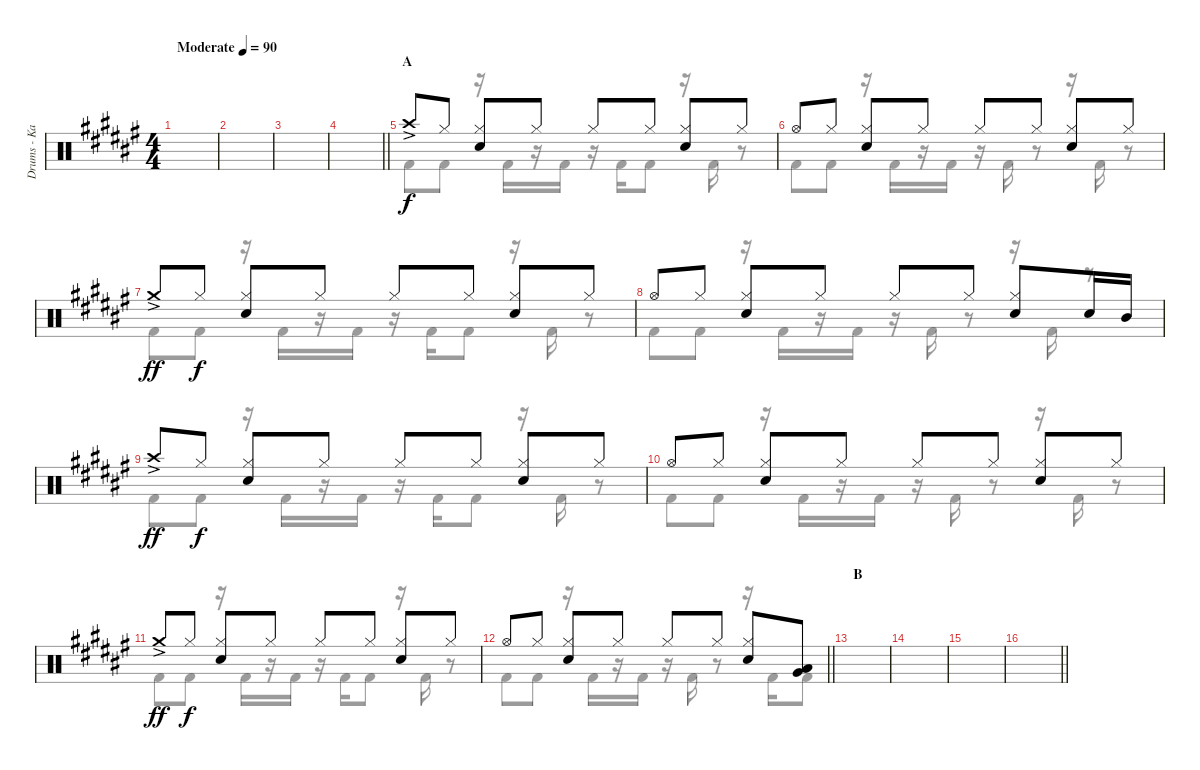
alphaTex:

\track ("Drums - Kai" "Drums - Ka") {instrument percussion}
\staff {score}
\articulation defaults
\voice
\ts (4 4)
\tempo (90 "Moderate")
\clef neutral
\ks f#
|
|
|
\barLineRight lightlight
|
\section ("" "A")
"Crash high (hit)"{ac}.8 "Hi-Hat (closed)".8{dy f} ("Hi-Hat (closed)" "Snare (hit) 2").8 "Hi-Hat (closed)".8 "Hi-Hat (closed)".8 "Hi-Hat (closed)".8 ("Hi-Hat (closed)" "Snare (hit) 2").8 "Hi-Hat (closed)".8 |
"Hi-Hat (open)".8 "Hi-Hat (closed)".8 ("Hi-Hat (closed)" "Snare (hit) 2").8 "Hi-Hat (closed)".8 "Hi-Hat (closed)".8 "Hi-Hat (closed)".8 ("Hi-Hat (closed)" "Snare (hit) 2").8 "Hi-Hat (closed)".8 |
"Crash medium (hit)"{ac}.8{dy ff} "Hi-Hat (closed)".8{dy f} ("Hi-Hat (closed)" "Snare (hit) 2").8 "Hi-Hat (closed)".8 "Hi-Hat (closed)".8 "Hi-Hat (closed)".8 ("Hi-Hat (closed)" "Snare (hit) 2").8 "Hi-Hat (closed)".8 |
"Hi-Hat (open)".8 "Hi-Hat (closed)".8 ("Hi-Hat (closed)" "Snare (hit) 2").8 "Hi-Hat (closed)".8 "Hi-Hat (closed)".8 "Hi-Hat (closed)".8 ("Hi-Hat (closed)" "Snare (hit) 2").8 "Snare (hit) 2".16 "Mid Tom (hit)".16 |
"Crash high (hit)"{ac}.8{dy ff} "Hi-Hat (closed)".8{dy f} ("Hi-Hat (closed)" "Snare (hit) 2").8 "Hi-Hat (closed)".8 "Hi-Hat (closed)".8 "Hi-Hat (closed)".8 ("Hi-Hat (closed)" "Snare (hit) 2").8 "Hi-Hat (closed)".8 |
"Hi-Hat (open)".8 "Hi-Hat (closed)".8 ("Hi-Hat (closed)" "Snare (hit) 2").8 "Hi-Hat (closed)".8 "Hi-Hat (closed)".8 "Hi-Hat (closed)".8 ("Hi-Hat (closed)" "Snare (hit) 2").8 "Hi-Hat (closed)".8 |
"Crash medium (hit)"{ac}.8{dy ff} "Hi-Hat (closed)".8{dy f} ("Hi-Hat (closed)" "Snare (hit) 2").8 "Hi-Hat (closed)".8 "Hi-Hat (closed)".8 "Hi-Hat (closed)".8 ("Hi-Hat (closed)" "Snare (hit) 2").8 "Hi-Hat (closed)".8 |
\barLineRight lightlight "Hi-Hat (open)".8 "Hi-Hat (closed)".8
("Hi-Hat (closed)" "Snare (hit) 2").8 "Hi-Hat (closed)".8 "Hi-Hat (closed)".8 "Hi-Hat (closed)".8 ("Hi-Hat (closed)" "Snare (hit) 2").8 ("Low Tom (hit)" "Very Low Tom (hit)").8 |
\section ("" "B")
|
|
|
\barLineRight lightlight
\voice
\clef neutral
\ottava regular
\simile none
\ks f#
|
|
|
\barLineRight lightlight
|
"Kick (hit) 2".8 "Kick (hit) 2".8 r.16 "Kick (hit) 2".16 r.16 "Kick (hit) 2".16 r.16 "Kick (hit) 2".16 "Kick (hit) 2".8 r.16 "Kick (hit) 2".16 r.8 |
"Kick (hit) 2".8 "Kick (hit) 2".8 r.16 "Kick (hit) 2".16 r.16 "Kick (hit) 2".16 r.16 "Kick (hit) 2".16 r.8 r.16 "Kick (hit) 2".16 r.8 |
"Kick (hit) 2".8 "Kick (hit) 2".8 r.16 "Kick (hit) 2".16 r.16 "Kick (hit) 2".16 r.16 "Kick (hit) 2".16 "Kick (hit) 2".8 r.16 "Kick (hit) 2".16 r.8 |
"Kick (hit) 2".8 "Kick (hit) 2".8 r.16 "Kick (hit) 2".16 r.16 "Kick (hit) 2".16 r.16 "Kick (hit) 2".16 r.8 r.16 "Kick (hit) 2".16 r.8 |
"Kick (hit) 2".8 "Kick (hit) 2".8 r.16 "Kick (hit) 2".16 r.16 "Kick (hit) 2".16 r.16 "Kick (hit) 2".16 "Kick (hit) 2".8 r.16 "Kick (hit) 2".16 r.8 |
"Kick (hit) 2".8 "Kick (hit) 2".8 r.16 "Kick (hit) 2".16 r.16 "Kick (hit) 2".16 r.16 "Kick (hit) 2".16 r.8 r.16 "Kick (hit) 2".16 r.8 |
"Kick (hit) 2".8 "Kick (hit) 2".8 r.16 "Kick (hit) 2".16 r.16 "Kick (hit) 2".16 r.16 "Kick (hit) 2".16 "Kick (hit) 2".8 r.16 "Kick (hit) 2".16 r.8 |
\barLineRight lightlight "Kick (hit) 2".8 "Kick (hit) 2".8
r.16 "Kick (hit) 2".16 r.16 "Kick (hit) 2".16 r.16 "Kick (hit) 2".16 r.8 r.16 "Kick (hit) 2".16 "Kick (hit) 2".8 |
|
|
|
\barLineRight lightlight
